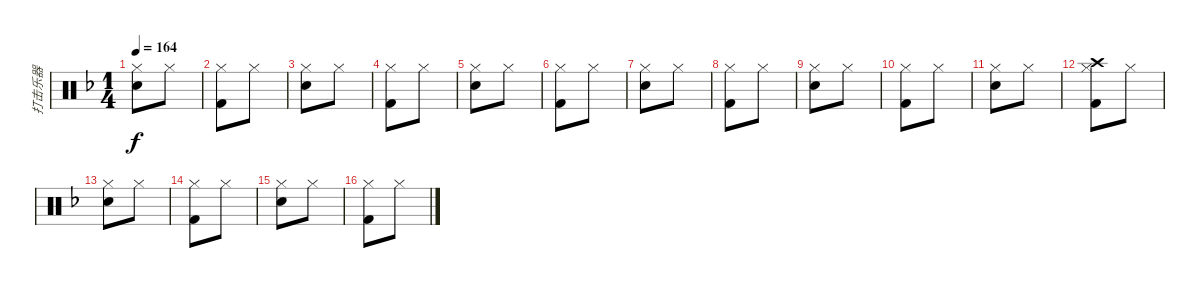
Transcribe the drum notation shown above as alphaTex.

\track ("打击乐器" "打击乐器") {instrument percussion}
\staff {score}
\articulation defaults
\ts (1 4)
\tempo 164
\clef neutral
\ks f
("Hi-Hat (closed)" "Snare (hit) 2").8{dy f} "Hi-Hat (closed)".8 |
("Hi-Hat (closed)" "Kick (hit) 2").8 "Hi-Hat (closed)".8 |
("Hi-Hat (closed)" "Snare (hit) 2").8 "Hi-Hat (closed)".8 |
("Hi-Hat (closed)" "Kick (hit) 2").8 "Hi-Hat (closed)".8 |
("Hi-Hat (closed)" "Snare (hit) 2").8 "Hi-Hat (closed)".8 |
("Hi-Hat (closed)" "Kick (hit) 2").8 "Hi-Hat (closed)".8 |
("Hi-Hat (closed)" "Snare (hit) 2").8 "Hi-Hat (closed)".8 |
("Hi-Hat (closed)" "Kick (hit) 2").8 "Hi-Hat (closed)".8 |
("Hi-Hat (closed)" "Snare (hit) 2").8 "Hi-Hat (closed)".8 |
("Hi-Hat (closed)" "Kick (hit) 2").8 "Hi-Hat (closed)".8 |
("Hi-Hat (closed)" "Snare (hit) 2").8 "Hi-Hat (closed)".8 |
("Hi-Hat (closed)" "Crash high (hit)" "Kick (hit) 2").8 "Hi-Hat (closed)".8 |
("Hi-Hat (closed)" "Snare (hit) 2").8 "Hi-Hat (closed)".8 |
("Hi-Hat (closed)" "Kick (hit) 2").8 "Hi-Hat (closed)".8 |
("Hi-Hat (closed)" "Snare (hit) 2").8 "Hi-Hat (closed)".8 |
("Hi-Hat (closed)" "Kick (hit) 2").8 "Hi-Hat (closed)".8
